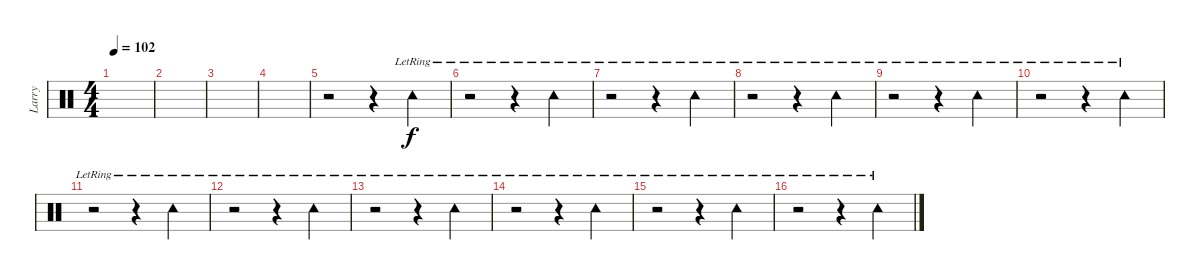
\track ("Larry" "Larry") {instrument percussion}
\staff {score}
\articulation defaults
\ts (4 4)
\tempo 102
\clef neutral
\ks c
|
|
|
|
r.2 r.4 "Tambourine (hit)"{lr}.4 |
r.2 r.4 "Tambourine (hit)"{lr}.4 |
r.2 r.4 "Tambourine (hit)"{lr}.4 |
r.2 r.4 "Tambourine (hit)"{lr}.4 |
r.2 r.4 "Tambourine (hit)"{lr}.4 |
r.2 r.4 "Tambourine (hit)"{lr}.4 |
r.2 r.4 "Tambourine (hit)"{lr}.4 |
r.2 r.4 "Tambourine (hit)"{lr}.4 |
r.2 r.4 "Tambourine (hit)"{lr}.4 |
r.2 r.4 "Tambourine (hit)"{lr}.4 |
r.2 r.4 "Tambourine (hit)"{lr}.4 |
r.2 r.4 "Tambourine (hit)"{lr}.4
